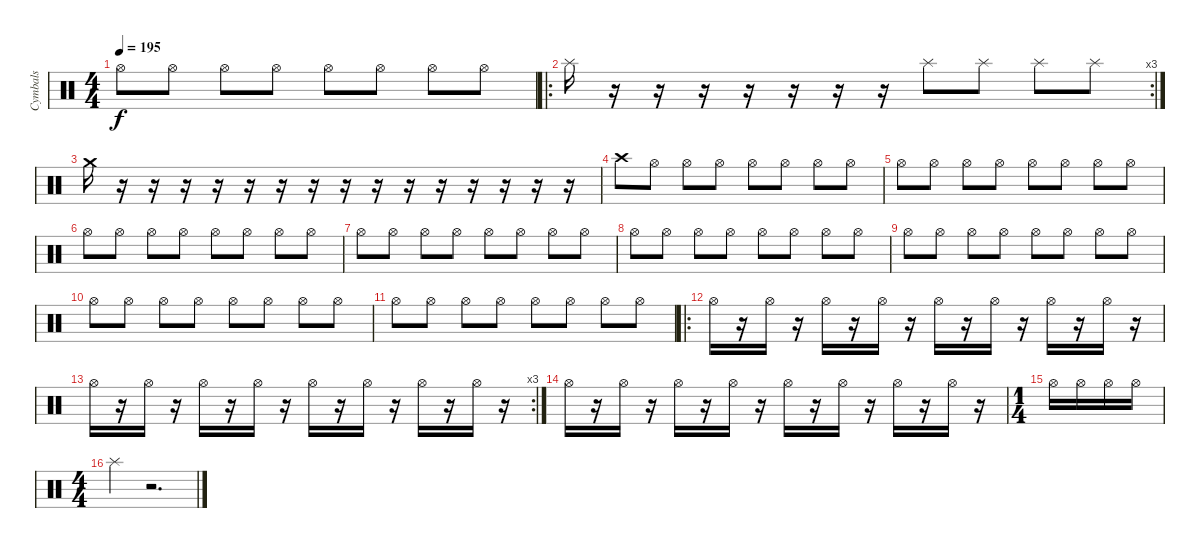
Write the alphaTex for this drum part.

\track ("Cymbals" "Cymbals") {instrument percussion}
\staff {score}
\articulation defaults
\ts (4 4)
\tempo 195
\clef neutral
\ks c "Hi-Hat (open)".8{dy f} "Hi-Hat (open)".8 "Hi-Hat (open)".8 "Hi-Hat (open)".8 "Hi-Hat (open)".8 "Hi-Hat (open)".8 "Hi-Hat (open)".8 "Hi-Hat (open)".8
|
\ro
\rc 3 "Splash (hit)".16
r.16 r.16 r.16 r.16 r.16 r.16 r.16 "Splash (hit)".8 "Splash (hit)".8 "Splash (hit)".8 "Splash (hit)".8 |
"Crash medium (hit)".16 r.16 r.16 r.16 r.16 r.16 r.16 r.16 r.16 r.16 r.16 r.16 r.16 r.16 r.16 r.16 |
"Crash high (hit)".8 "Hi-Hat (open)".8 "Hi-Hat (open)".8 "Hi-Hat (open)".8 "Hi-Hat (open)".8 "Hi-Hat (open)".8 "Hi-Hat (open)".8 "Hi-Hat (open)".8 |
"Hi-Hat (open)".8 "Hi-Hat (open)".8 "Hi-Hat (open)".8 "Hi-Hat (open)".8 "Hi-Hat (open)".8 "Hi-Hat (open)".8 "Hi-Hat (open)".8 "Hi-Hat (open)".8 |
"Hi-Hat (open)".8 "Hi-Hat (open)".8 "Hi-Hat (open)".8 "Hi-Hat (open)".8 "Hi-Hat (open)".8 "Hi-Hat (open)".8 "Hi-Hat (open)".8 "Hi-Hat (open)".8 |
"Hi-Hat (open)".8 "Hi-Hat (open)".8 "Hi-Hat (open)".8 "Hi-Hat (open)".8 "Hi-Hat (open)".8 "Hi-Hat (open)".8 "Hi-Hat (open)".8 "Hi-Hat (open)".8 |
"Hi-Hat (open)".8 "Hi-Hat (open)".8 "Hi-Hat (open)".8 "Hi-Hat (open)".8 "Hi-Hat (open)".8 "Hi-Hat (open)".8 "Hi-Hat (open)".8 "Hi-Hat (open)".8 |
"Hi-Hat (open)".8 "Hi-Hat (open)".8 "Hi-Hat (open)".8 "Hi-Hat (open)".8 "Hi-Hat (open)".8 "Hi-Hat (open)".8 "Hi-Hat (open)".8 "Hi-Hat (open)".8 |
"Hi-Hat (open)".8 "Hi-Hat (open)".8 "Hi-Hat (open)".8 "Hi-Hat (open)".8 "Hi-Hat (open)".8 "Hi-Hat (open)".8 "Hi-Hat (open)".8 "Hi-Hat (open)".8 |
"Hi-Hat (open)".8 "Hi-Hat (open)".8 "Hi-Hat (open)".8 "Hi-Hat (open)".8 "Hi-Hat (open)".8 "Hi-Hat (open)".8 "Hi-Hat (open)".8 "Hi-Hat (open)".8 |
\ro "Hi-Hat (open)".16
r.16 "Hi-Hat (open)".16 r.16 "Hi-Hat (open)".16 r.16 "Hi-Hat (open)".16 r.16 "Hi-Hat (open)".16 r.16 "Hi-Hat (open)".16 r.16 "Hi-Hat (open)".16 r.16 "Hi-Hat (open)".16 r.16 |
\rc 3 "Hi-Hat (open)".16
r.16 "Hi-Hat (open)".16 r.16 "Hi-Hat (open)".16 r.16 "Hi-Hat (open)".16 r.16 "Hi-Hat (open)".16 r.16 "Hi-Hat (open)".16 r.16 "Hi-Hat (open)".16 r.16 "Hi-Hat (open)".16 r.16 |
"Hi-Hat (open)".16 r.16 "Hi-Hat (open)".16 r.16 "Hi-Hat (open)".16 r.16 "Hi-Hat (open)".16 r.16 "Hi-Hat (open)".16 r.16 "Hi-Hat (open)".16 r.16 "Hi-Hat (open)".16 r.16 "Hi-Hat (open)".16 r.16 |
\ts (1 4)
"Hi-Hat (open)".16 "Hi-Hat (open)".16 "Hi-Hat (open)".16 "Hi-Hat (open)".16 |
\ts (4 4)
"Splash (hit)".4 r.2{d}
